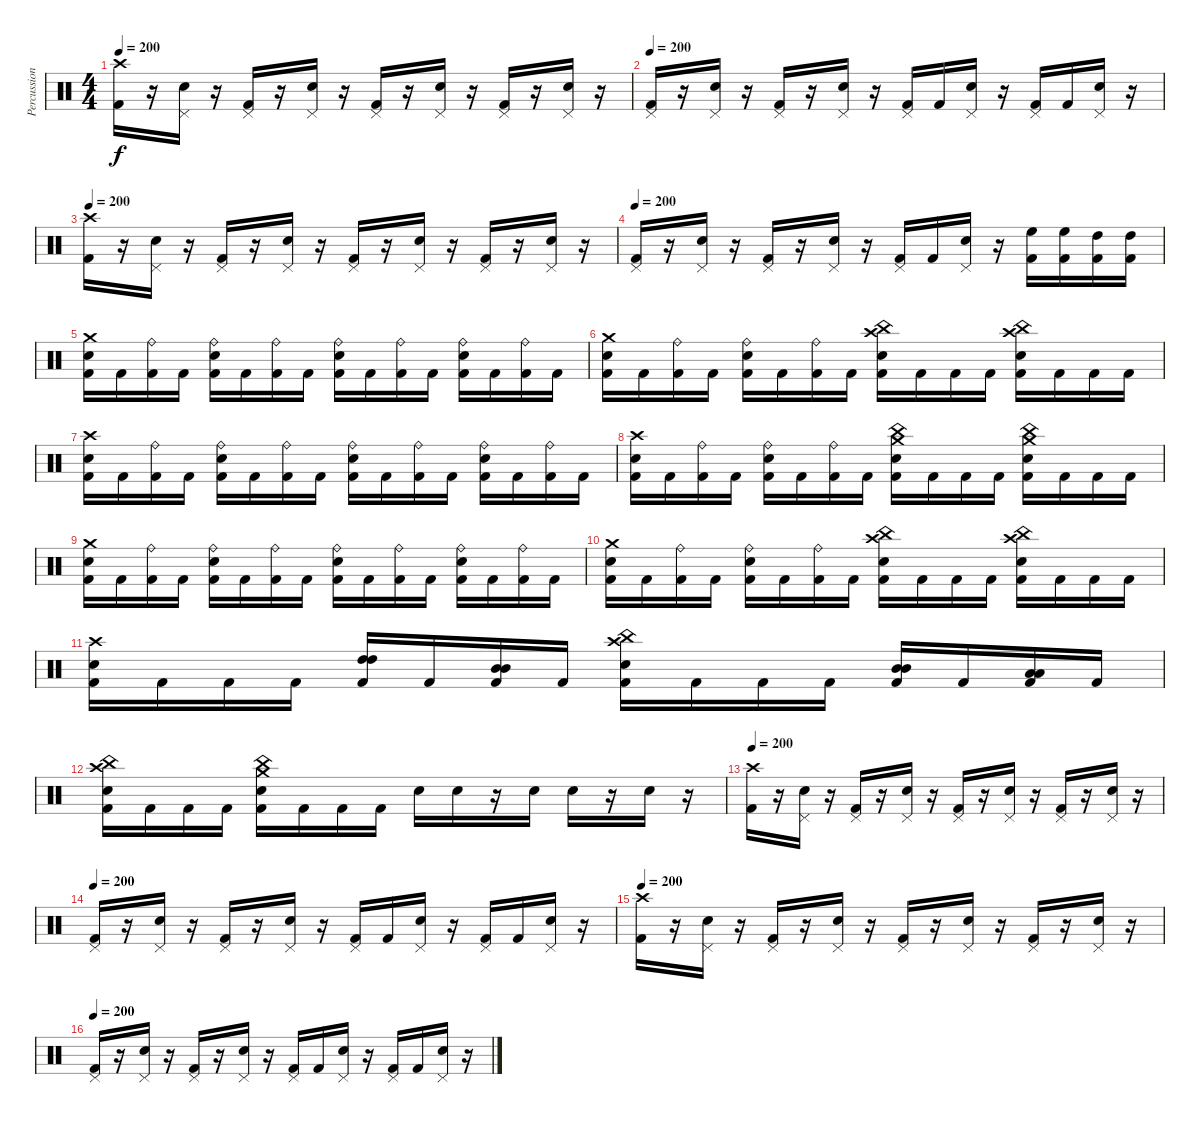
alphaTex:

\track ("Percussion" "Percussion") {instrument percussion}
\staff {score}
\articulation defaults
\ts (4 4)
\tempo 200
\clef neutral
\ks c
("Crash high (hit)" "Kick (hit) 2").16{dy f} r.16 ("Pedal Hi-Hat (hit)" "Snare (hit) 2").16 r.16 ("Pedal Hi-Hat (hit)" "Kick (hit) 2").16 r.16 ("Pedal Hi-Hat (hit)" "Snare (hit) 2").16 r.16 ("Pedal Hi-Hat (hit)" "Kick (hit) 2").16 r.16 ("Pedal Hi-Hat (hit)" "Snare (hit) 2").16 r.16 ("Pedal Hi-Hat (hit)" "Kick (hit) 2").16 r.16 ("Pedal Hi-Hat (hit)" "Snare (hit) 2").16 r.16 |
\tempo 200
("Pedal Hi-Hat (hit)" "Kick (hit) 2").16 r.16 ("Pedal Hi-Hat (hit)" "Snare (hit) 2").16 r.16 ("Pedal Hi-Hat (hit)" "Kick (hit) 2").16 r.16 ("Pedal Hi-Hat (hit)" "Snare (hit) 2").16 r.16 ("Pedal Hi-Hat (hit)" "Kick (hit) 2").16 "Kick (hit) 2".16 ("Pedal Hi-Hat (hit)" "Snare (hit) 2").16 r.16 ("Pedal Hi-Hat (hit)" "Kick (hit) 2").16 "Kick (hit) 2".16 ("Pedal Hi-Hat (hit)" "Snare (hit) 2").16 r.16 |
\tempo 200
("Crash high (hit)" "Kick (hit) 2").16 r.16 ("Pedal Hi-Hat (hit)" "Snare (hit) 2").16 r.16 ("Pedal Hi-Hat (hit)" "Kick (hit) 2").16 r.16 ("Pedal Hi-Hat (hit)" "Snare (hit) 2").16 r.16 ("Pedal Hi-Hat (hit)" "Kick (hit) 2").16 r.16 ("Pedal Hi-Hat (hit)" "Snare (hit) 2").16 r.16 ("Pedal Hi-Hat (hit)" "Kick (hit) 2").16 r.16 ("Pedal Hi-Hat (hit)" "Snare (hit) 2").16 r.16 |
\tempo 200
("Pedal Hi-Hat (hit)" "Kick (hit) 2").16 r.16 ("Pedal Hi-Hat (hit)" "Snare (hit) 2").16 r.16 ("Pedal Hi-Hat (hit)" "Kick (hit) 2").16 r.16 ("Pedal Hi-Hat (hit)" "Snare (hit) 2").16 r.16 ("Pedal Hi-Hat (hit)" "Kick (hit) 2").16 "Kick (hit) 2".16 ("Pedal Hi-Hat (hit)" "Snare (hit) 2").16 r.16 ("High Floor Tom (hit)" "Kick (hit) 2").16 ("High Floor Tom (hit)" "Kick (hit) 2").16 ("High Tom (hit)" "Kick (hit) 2").16 ("High Tom (hit)" "Kick (hit) 2").16 |
("Crash medium (hit)" "Snare (hit) 2" "Kick (hit) 2").16 "Kick (hit) 2".16 ("Ride (bell)" "Kick (hit) 2").16 "Kick (hit) 2".16 ("Ride (bell)" "Snare (hit) 2" "Kick (hit) 2").16 "Kick (hit) 2".16 ("Ride (bell)" "Kick (hit) 2").16 "Kick (hit) 2".16 ("Ride (bell)" "Snare (hit) 2" "Kick (hit) 2").16 "Kick (hit) 2".16 ("Ride (bell)" "Kick (hit) 2").16 "Kick (hit) 2".16 ("Ride (bell)" "Snare (hit) 2" "Kick (hit) 2").16 "Kick (hit) 2".16 ("Ride (bell)" "Kick (hit) 2").16 "Kick (hit) 2".16 |
("Crash medium (hit)" "Snare (hit) 2" "Kick (hit) 2").16 "Kick (hit) 2".16 ("Ride (bell)" "Kick (hit) 2").16 "Kick (hit) 2".16 ("Ride (bell)" "Snare (hit) 2" "Kick (hit) 2").16 "Kick (hit) 2".16 ("Ride (bell)" "Kick (hit) 2").16 "Kick (hit) 2".16 ("Crash high (hit)" "China (hit)" "Snare (hit) 2" "Kick (hit) 2").16 "Kick (hit) 2".16 "Kick (hit) 2".16 "Kick (hit) 2".16 ("Crash high (hit)" "China (hit)" "Snare (hit) 2" "Kick (hit) 2").16 "Kick (hit) 2".16 "Kick (hit) 2".16 "Kick (hit) 2".16 |
("Crash high (hit)" "Snare (hit) 2" "Kick (hit) 2").16 "Kick (hit) 2".16 ("Ride (bell)" "Kick (hit) 2").16 "Kick (hit) 2".16 ("Ride (bell)" "Snare (hit) 2" "Kick (hit) 2").16 "Kick (hit) 2".16 ("Ride (bell)" "Kick (hit) 2").16 "Kick (hit) 2".16 ("Ride (bell)" "Snare (hit) 2" "Kick (hit) 2").16 "Kick (hit) 2".16 ("Ride (bell)" "Kick (hit) 2").16 "Kick (hit) 2".16 ("Ride (bell)" "Snare (hit) 2" "Kick (hit) 2").16 "Kick (hit) 2".16 ("Ride (bell)" "Kick (hit) 2").16 "Kick (hit) 2".16 |
("Crash high (hit)" "Snare (hit) 2" "Kick (hit) 2").16 "Kick (hit) 2".16 ("Ride (bell)" "Kick (hit) 2").16 "Kick (hit) 2".16 ("Ride (bell)" "Snare (hit) 2" "Kick (hit) 2").16 "Kick (hit) 2".16 ("Ride (bell)" "Kick (hit) 2").16 "Kick (hit) 2".16 ("Crash medium (hit)" "China (hit)" "Snare (hit) 2" "Kick (hit) 2").16 "Kick (hit) 2".16 "Kick (hit) 2".16 "Kick (hit) 2".16 ("Crash medium (hit)" "China (hit)" "Snare (hit) 2" "Kick (hit) 2").16 "Kick (hit) 2".16 "Kick (hit) 2".16 "Kick (hit) 2".16 |
("Crash medium (hit)" "Snare (hit) 2" "Kick (hit) 2").16 "Kick (hit) 2".16 ("Ride (bell)" "Kick (hit) 2").16 "Kick (hit) 2".16 ("Ride (bell)" "Snare (hit) 2" "Kick (hit) 2").16 "Kick (hit) 2".16 ("Ride (bell)" "Kick (hit) 2").16 "Kick (hit) 2".16 ("Ride (bell)" "Snare (hit) 2" "Kick (hit) 2").16 "Kick (hit) 2".16 ("Ride (bell)" "Kick (hit) 2").16 "Kick (hit) 2".16 ("Ride (bell)" "Snare (hit) 2" "Kick (hit) 2").16 "Kick (hit) 2".16 ("Ride (bell)" "Kick (hit) 2").16 "Kick (hit) 2".16 |
("Crash medium (hit)" "Snare (hit) 2" "Kick (hit) 2").16 "Kick (hit) 2".16 ("Ride (bell)" "Kick (hit) 2").16 "Kick (hit) 2".16 ("Ride (bell)" "Snare (hit) 2" "Kick (hit) 2").16 "Kick (hit) 2".16 ("Ride (bell)" "Kick (hit) 2").16 "Kick (hit) 2".16 ("Crash high (hit)" "China (hit)" "Snare (hit) 2" "Kick (hit) 2").16 "Kick (hit) 2".16 "Kick (hit) 2".16 "Kick (hit) 2".16 ("Crash high (hit)" "China (hit)" "Snare (hit) 2" "Kick (hit) 2").16 "Kick (hit) 2".16 "Kick (hit) 2".16 "Kick (hit) 2".16 |
("Crash high (hit)" "Snare (hit) 2" "Kick (hit) 2").16 "Kick (hit) 2".16 "Kick (hit) 2".16 "Kick (hit) 2".16 ("High Tom (hit)" "High Tom (hit)" "Kick (hit) 2").16 "Kick (hit) 2".16 ("Mid Tom (hit)" "Mid Tom (hit)" "Kick (hit) 2").16 "Kick (hit) 2".16 ("Crash high (hit)" "China (hit)" "Snare (hit) 2" "Kick (hit) 2").16 "Kick (hit) 2".16 "Kick (hit) 2".16 "Kick (hit) 2".16 ("Mid Tom (hit)" "Mid Tom (hit)" "Kick (hit) 2").16 "Kick (hit) 2".16 ("Low Tom (hit)" "Low Tom (hit)" "Kick (hit) 2").16 "Kick (hit) 2".16 |
("Crash high (hit)" "China (hit)" "Snare (hit) 2" "Kick (hit) 2").16 "Kick (hit) 2".16 "Kick (hit) 2".16 "Kick (hit) 2".16 ("Crash medium (hit)" "China (hit)" "Snare (hit) 2" "Kick (hit) 2").16 "Kick (hit) 2".16 "Kick (hit) 2".16 "Kick (hit) 2".16 "Snare (hit) 2".16 "Snare (hit) 2".16 r.16 "Snare (hit) 2".16 "Snare (hit) 2".16 r.16 "Snare (hit) 2".16 r.16 |
\tempo 200
("Crash high (hit)" "Kick (hit) 2").16 r.16 ("Pedal Hi-Hat (hit)" "Snare (hit) 2").16 r.16 ("Pedal Hi-Hat (hit)" "Kick (hit) 2").16 r.16 ("Pedal Hi-Hat (hit)" "Snare (hit) 2").16 r.16 ("Pedal Hi-Hat (hit)" "Kick (hit) 2").16 r.16 ("Pedal Hi-Hat (hit)" "Snare (hit) 2").16 r.16 ("Pedal Hi-Hat (hit)" "Kick (hit) 2").16 r.16 ("Pedal Hi-Hat (hit)" "Snare (hit) 2").16 r.16 |
\tempo 200
("Pedal Hi-Hat (hit)" "Kick (hit) 2").16 r.16 ("Pedal Hi-Hat (hit)" "Snare (hit) 2").16 r.16 ("Pedal Hi-Hat (hit)" "Kick (hit) 2").16 r.16 ("Pedal Hi-Hat (hit)" "Snare (hit) 2").16 r.16 ("Pedal Hi-Hat (hit)" "Kick (hit) 2").16 "Kick (hit) 2".16 ("Pedal Hi-Hat (hit)" "Snare (hit) 2").16 r.16 ("Pedal Hi-Hat (hit)" "Kick (hit) 2").16 "Kick (hit) 2".16 ("Pedal Hi-Hat (hit)" "Snare (hit) 2").16 r.16 |
\tempo 200
("Crash high (hit)" "Kick (hit) 2").16 r.16 ("Pedal Hi-Hat (hit)" "Snare (hit) 2").16 r.16 ("Pedal Hi-Hat (hit)" "Kick (hit) 2").16 r.16 ("Pedal Hi-Hat (hit)" "Snare (hit) 2").16 r.16 ("Pedal Hi-Hat (hit)" "Kick (hit) 2").16 r.16 ("Pedal Hi-Hat (hit)" "Snare (hit) 2").16 r.16 ("Pedal Hi-Hat (hit)" "Kick (hit) 2").16 r.16 ("Pedal Hi-Hat (hit)" "Snare (hit) 2").16 r.16 |
\tempo 200
("Pedal Hi-Hat (hit)" "Kick (hit) 2").16 r.16 ("Pedal Hi-Hat (hit)" "Snare (hit) 2").16 r.16 ("Pedal Hi-Hat (hit)" "Kick (hit) 2").16 r.16 ("Pedal Hi-Hat (hit)" "Snare (hit) 2").16 r.16 ("Pedal Hi-Hat (hit)" "Kick (hit) 2").16 "Kick (hit) 2".16 ("Pedal Hi-Hat (hit)" "Snare (hit) 2").16 r.16 ("Pedal Hi-Hat (hit)" "Kick (hit) 2").16 "Kick (hit) 2".16 ("Pedal Hi-Hat (hit)" "Snare (hit) 2").16 r.16
